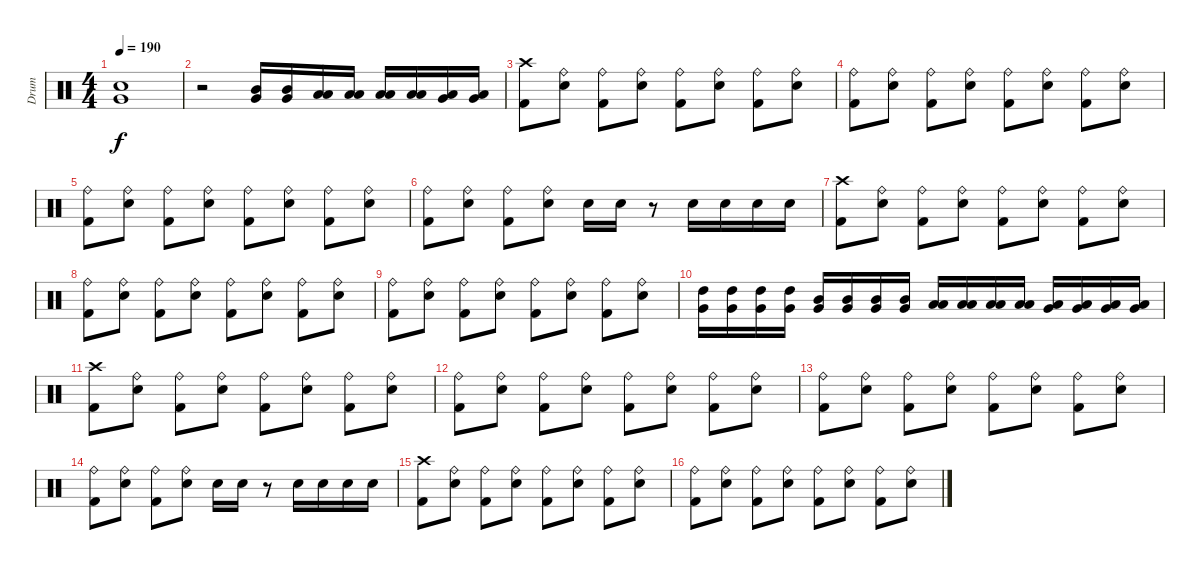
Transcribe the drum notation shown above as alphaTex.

\track ("Drum" "Drum") {instrument percussion}
\staff {score}
\articulation defaults
\ts (4 4)
\tempo 190
\clef neutral
\ks c
("Snare (hit) 2" "Very Low Tom (hit)").1{dy f} |
r.2 ("Mid Tom (hit)" "Very Low Tom (hit)").16 ("Mid Tom (hit)" "Very Low Tom (hit)").16 ("Low Tom (hit)" "Low Floor Tom (hit)").16 ("Low Tom (hit)" "Low Floor Tom (hit)").16 ("Low Tom (hit)" "Low Floor Tom (hit)").16 ("Low Tom (hit)" "Low Floor Tom (hit)").16 ("Very Low Tom (hit)" "Low Floor Tom (hit)").16 ("Very Low Tom (hit)" "Low Floor Tom (hit)").16 |
("Crash high (hit)" "Kick (hit) 2").8 ("Ride (bell)" "Snare (hit) 2").8 ("Ride (bell)" "Kick (hit) 2").8 ("Ride (bell)" "Snare (hit) 2").8 ("Ride (bell)" "Kick (hit) 2").8 ("Ride (bell)" "Snare (hit) 2").8 ("Ride (bell)" "Kick (hit) 2").8 ("Ride (bell)" "Snare (hit) 2").8 |
("Ride (bell)" "Kick (hit) 2").8 ("Ride (bell)" "Snare (hit) 2").8 ("Ride (bell)" "Kick (hit) 2").8 ("Ride (bell)" "Snare (hit) 2").8 ("Ride (bell)" "Kick (hit) 2").8 ("Ride (bell)" "Snare (hit) 2").8 ("Ride (bell)" "Kick (hit) 2").8 ("Ride (bell)" "Snare (hit) 2").8 |
("Ride (bell)" "Kick (hit) 2").8 ("Ride (bell)" "Snare (hit) 2").8 ("Ride (bell)" "Kick (hit) 2").8 ("Ride (bell)" "Snare (hit) 2").8 ("Ride (bell)" "Kick (hit) 2").8 ("Ride (bell)" "Snare (hit) 2").8 ("Ride (bell)" "Kick (hit) 2").8 ("Ride (bell)" "Snare (hit) 2").8 |
("Ride (bell)" "Kick (hit) 2").8 ("Ride (bell)" "Snare (hit) 2").8 ("Ride (bell)" "Kick (hit) 2").8 ("Ride (bell)" "Snare (hit) 2").8 "Snare (hit) 2".16 "Snare (hit) 2".16 r.8 "Snare (hit) 2".16 "Snare (hit) 2".16 "Snare (hit) 2".16 "Snare (hit) 2".16 |
("Crash high (hit)" "Kick (hit) 2").8 ("Ride (bell)" "Snare (hit) 2").8 ("Ride (bell)" "Kick (hit) 2").8 ("Ride (bell)" "Snare (hit) 2").8 ("Ride (bell)" "Kick (hit) 2").8 ("Ride (bell)" "Snare (hit) 2").8 ("Ride (bell)" "Kick (hit) 2").8 ("Ride (bell)" "Snare (hit) 2").8 |
("Ride (bell)" "Kick (hit) 2").8 ("Ride (bell)" "Snare (hit) 2").8 ("Ride (bell)" "Kick (hit) 2").8 ("Ride (bell)" "Snare (hit) 2").8 ("Ride (bell)" "Kick (hit) 2").8 ("Ride (bell)" "Snare (hit) 2").8 ("Ride (bell)" "Kick (hit) 2").8 ("Ride (bell)" "Snare (hit) 2").8 |
("Ride (bell)" "Kick (hit) 2").8 ("Ride (bell)" "Snare (hit) 2").8 ("Ride (bell)" "Kick (hit) 2").8 ("Ride (bell)" "Snare (hit) 2").8 ("Ride (bell)" "Kick (hit) 2").8 ("Ride (bell)" "Snare (hit) 2").8 ("Ride (bell)" "Kick (hit) 2").8 ("Ride (bell)" "Snare (hit) 2").8 |
("High Tom (hit)" "Very Low Tom (hit)").16 ("High Tom (hit)" "Very Low Tom (hit)").16 ("High Tom (hit)" "Very Low Tom (hit)").16 ("High Tom (hit)" "Very Low Tom (hit)").16 ("Mid Tom (hit)" "Very Low Tom (hit)").16 ("Mid Tom (hit)" "Very Low Tom (hit)").16 ("Mid Tom (hit)" "Very Low Tom (hit)").16 ("Mid Tom (hit)" "Very Low Tom (hit)").16 ("Low Tom (hit)" "Low Floor Tom (hit)").16 ("Low Tom (hit)" "Low Floor Tom (hit)").16 ("Low Tom (hit)" "Low Floor Tom (hit)").16 ("Low Tom (hit)" "Low Floor Tom (hit)").16 ("Very Low Tom (hit)" "Low Floor Tom (hit)").16 ("Very Low Tom (hit)" "Low Floor Tom (hit)").16 ("Very Low Tom (hit)" "Low Floor Tom (hit)").16 ("Very Low Tom (hit)" "Low Floor Tom (hit)").16 |
("Crash high (hit)" "Kick (hit) 2").8 ("Ride (bell)" "Snare (hit) 2").8 ("Ride (bell)" "Kick (hit) 2").8 ("Ride (bell)" "Snare (hit) 2").8 ("Ride (bell)" "Kick (hit) 2").8 ("Ride (bell)" "Snare (hit) 2").8 ("Ride (bell)" "Kick (hit) 2").8 ("Ride (bell)" "Snare (hit) 2").8 |
("Ride (bell)" "Kick (hit) 2").8 ("Ride (bell)" "Snare (hit) 2").8 ("Ride (bell)" "Kick (hit) 2").8 ("Ride (bell)" "Snare (hit) 2").8 ("Ride (bell)" "Kick (hit) 2").8 ("Ride (bell)" "Snare (hit) 2").8 ("Ride (bell)" "Kick (hit) 2").8 ("Ride (bell)" "Snare (hit) 2").8 |
("Ride (bell)" "Kick (hit) 2").8 ("Ride (bell)" "Snare (hit) 2").8 ("Ride (bell)" "Kick (hit) 2").8 ("Ride (bell)" "Snare (hit) 2").8 ("Ride (bell)" "Kick (hit) 2").8 ("Ride (bell)" "Snare (hit) 2").8 ("Ride (bell)" "Kick (hit) 2").8 ("Ride (bell)" "Snare (hit) 2").8 |
("Ride (bell)" "Kick (hit) 2").8 ("Ride (bell)" "Snare (hit) 2").8 ("Ride (bell)" "Kick (hit) 2").8 ("Ride (bell)" "Snare (hit) 2").8 "Snare (hit) 2".16 "Snare (hit) 2".16 r.8 "Snare (hit) 2".16 "Snare (hit) 2".16 "Snare (hit) 2".16 "Snare (hit) 2".16 |
("Crash high (hit)" "Kick (hit) 2").8 ("Ride (bell)" "Snare (hit) 2").8 ("Ride (bell)" "Kick (hit) 2").8 ("Ride (bell)" "Snare (hit) 2").8 ("Ride (bell)" "Kick (hit) 2").8 ("Ride (bell)" "Snare (hit) 2").8 ("Ride (bell)" "Kick (hit) 2").8 ("Ride (bell)" "Snare (hit) 2").8 |
("Ride (bell)" "Kick (hit) 2").8 ("Ride (bell)" "Snare (hit) 2").8 ("Ride (bell)" "Kick (hit) 2").8 ("Ride (bell)" "Snare (hit) 2").8 ("Ride (bell)" "Kick (hit) 2").8 ("Ride (bell)" "Snare (hit) 2").8 ("Ride (bell)" "Kick (hit) 2").8 ("Ride (bell)" "Snare (hit) 2").8
